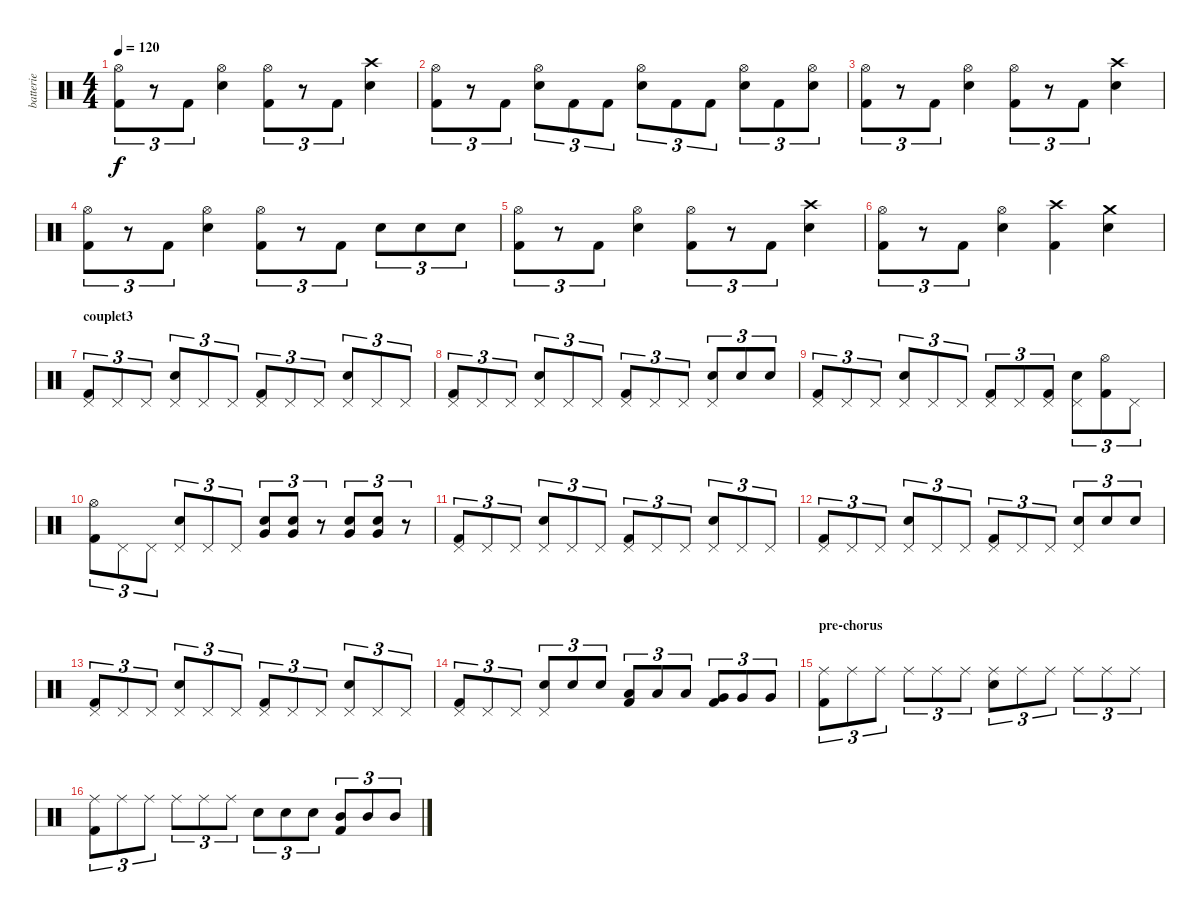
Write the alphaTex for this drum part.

\track ("batterie" "batterie") {instrument percussion}
\staff {score}
\articulation defaults
\ts (4 4)
\tempo 120
\clef neutral
\ks c
("Kick (hit) 2" "Hi-Hat (open)").8{tu (3 2) dy f} r.8{tu (3 2)} "Kick (hit) 2".8{tu (3 2)} ("Snare (hit) 2" "Hi-Hat (open)").4 ("Kick (hit) 2" "Hi-Hat (open)").8{tu (3 2)} r.8{tu (3 2)} "Kick (hit) 2".8{tu (3 2)} ("Crash high (hit)" "Snare (hit) 2").4 |
("Kick (hit) 2" "Hi-Hat (open)").8{tu (3 2)} r.8{tu (3 2)} "Kick (hit) 2".8{tu (3 2)} ("Snare (hit) 2" "Hi-Hat (open)").8{tu (3 2)} "Kick (hit) 2".8{tu (3 2)} "Kick (hit) 2".8{tu (3 2)} ("Snare (hit) 2" "Hi-Hat (open)").8{tu (3 2)} "Kick (hit) 2".8{tu (3 2)} "Kick (hit) 2".8{tu (3 2)} ("Snare (hit) 2" "Hi-Hat (open)").8{tu (3 2)} "Kick (hit) 2".8{tu (3 2)} ("Snare (hit) 2" "Hi-Hat (open)").8{tu (3 2)} |
("Kick (hit) 2" "Hi-Hat (open)").8{tu (3 2)} r.8{tu (3 2)} "Kick (hit) 2".8{tu (3 2)} ("Snare (hit) 2" "Hi-Hat (open)").4 ("Kick (hit) 2" "Hi-Hat (open)").8{tu (3 2)} r.8{tu (3 2)} "Kick (hit) 2".8{tu (3 2)} ("Crash high (hit)" "Snare (hit) 2").4 |
("Kick (hit) 2" "Hi-Hat (open)").8{tu (3 2)} r.8{tu (3 2)} "Kick (hit) 2".8{tu (3 2)} ("Snare (hit) 2" "Hi-Hat (open)").4 ("Kick (hit) 2" "Hi-Hat (open)").8{tu (3 2)} r.8{tu (3 2)} "Kick (hit) 2".8{tu (3 2)} "Snare (hit) 2".8{tu (3 2)} "Snare (hit) 2".8{tu (3 2)} "Snare (hit) 2".8{tu (3 2)} |
("Kick (hit) 2" "Hi-Hat (open)").8{tu (3 2)} r.8{tu (3 2)} "Kick (hit) 2".8{tu (3 2)} ("Snare (hit) 2" "Hi-Hat (open)").4 ("Kick (hit) 2" "Hi-Hat (open)").8{tu (3 2)} r.8{tu (3 2)} "Kick (hit) 2".8{tu (3 2)} ("Crash high (hit)" "Snare (hit) 2").4 |
("Kick (hit) 2" "Hi-Hat (open)").8{tu (3 2)} r.8{tu (3 2)} "Kick (hit) 2".8{tu (3 2)} ("Snare (hit) 2" "Hi-Hat (open)").4 ("Crash high (hit)" "Kick (hit) 2").4 ("Crash medium (hit)" "Snare (hit) 2").4 |
\section ("" "couplet3")
("Kick (hit) 2" "Pedal Hi-Hat (hit)").8{tu (3 2)} "Pedal Hi-Hat (hit)".8{tu (3 2)} "Pedal Hi-Hat (hit)".8{tu (3 2)} ("Snare (hit) 2" "Pedal Hi-Hat (hit)").8{tu (3 2)} "Pedal Hi-Hat (hit)".8{tu (3 2)} "Pedal Hi-Hat (hit)".8{tu (3 2)} ("Kick (hit) 2" "Pedal Hi-Hat (hit)").8{tu (3 2)} "Pedal Hi-Hat (hit)".8{tu (3 2)} "Pedal Hi-Hat (hit)".8{tu (3 2)} ("Snare (hit) 2" "Pedal Hi-Hat (hit)").8{tu (3 2)} "Pedal Hi-Hat (hit)".8{tu (3 2)} "Pedal Hi-Hat (hit)".8{tu (3 2)} |
("Kick (hit) 2" "Pedal Hi-Hat (hit)").8{tu (3 2)} "Pedal Hi-Hat (hit)".8{tu (3 2)} "Pedal Hi-Hat (hit)".8{tu (3 2)} ("Snare (hit) 2" "Pedal Hi-Hat (hit)").8{tu (3 2)} "Pedal Hi-Hat (hit)".8{tu (3 2)} "Pedal Hi-Hat (hit)".8{tu (3 2)} ("Kick (hit) 2" "Pedal Hi-Hat (hit)").8{tu (3 2)} "Pedal Hi-Hat (hit)".8{tu (3 2)} "Pedal Hi-Hat (hit)".8{tu (3 2)} ("Snare (hit) 2" "Pedal Hi-Hat (hit)").8{tu (3 2)} "Snare (hit) 2".8{tu (3 2)} "Snare (hit) 2".8{tu (3 2)} |
("Kick (hit) 2" "Pedal Hi-Hat (hit)").8{tu (3 2)} "Pedal Hi-Hat (hit)".8{tu (3 2)} "Pedal Hi-Hat (hit)".8{tu (3 2)} ("Snare (hit) 2" "Pedal Hi-Hat (hit)").8{tu (3 2)} "Pedal Hi-Hat (hit)".8{tu (3 2)} "Pedal Hi-Hat (hit)".8{tu (3 2)} ("Kick (hit) 2" "Pedal Hi-Hat (hit)").8{tu (3 2)} "Pedal Hi-Hat (hit)".8{tu (3 2)} ("Kick (hit) 2" "Pedal Hi-Hat (hit)").8{tu (3 2)} ("Snare (hit) 2" "Pedal Hi-Hat (hit)").8{tu (3 2)} ("Kick (hit) 2" "Hi-Hat (open)").8{tu (3 2)} "Pedal Hi-Hat (hit)".8{tu (3 2)} |
("Kick (hit) 2" "Hi-Hat (open)").8{tu (3 2)} "Pedal Hi-Hat (hit)".8{tu (3 2)} "Pedal Hi-Hat (hit)".8{tu (3 2)} ("Snare (hit) 2" "Pedal Hi-Hat (hit)").8{tu (3 2)} "Pedal Hi-Hat (hit)".8{tu (3 2)} "Pedal Hi-Hat (hit)".8{tu (3 2)} ("Very Low Tom (hit)" "Snare (hit) 2").8{tu (3 2)} ("Very Low Tom (hit)" "Snare (hit) 2").8{tu (3 2)} r.8{tu (3 2)} ("Very Low Tom (hit)" "Snare (hit) 2").8{tu (3 2)} ("Very Low Tom (hit)" "Snare (hit) 2").8{tu (3 2)} r.8{tu (3 2)} |
("Kick (hit) 2" "Pedal Hi-Hat (hit)").8{tu (3 2)} "Pedal Hi-Hat (hit)".8{tu (3 2)} "Pedal Hi-Hat (hit)".8{tu (3 2)} ("Snare (hit) 2" "Pedal Hi-Hat (hit)").8{tu (3 2)} "Pedal Hi-Hat (hit)".8{tu (3 2)} "Pedal Hi-Hat (hit)".8{tu (3 2)} ("Kick (hit) 2" "Pedal Hi-Hat (hit)").8{tu (3 2)} "Pedal Hi-Hat (hit)".8{tu (3 2)} "Pedal Hi-Hat (hit)".8{tu (3 2)} ("Snare (hit) 2" "Pedal Hi-Hat (hit)").8{tu (3 2)} "Pedal Hi-Hat (hit)".8{tu (3 2)} "Pedal Hi-Hat (hit)".8{tu (3 2)} |
("Kick (hit) 2" "Pedal Hi-Hat (hit)").8{tu (3 2)} "Pedal Hi-Hat (hit)".8{tu (3 2)} "Pedal Hi-Hat (hit)".8{tu (3 2)} ("Snare (hit) 2" "Pedal Hi-Hat (hit)").8{tu (3 2)} "Pedal Hi-Hat (hit)".8{tu (3 2)} "Pedal Hi-Hat (hit)".8{tu (3 2)} ("Kick (hit) 2" "Pedal Hi-Hat (hit)").8{tu (3 2)} "Pedal Hi-Hat (hit)".8{tu (3 2)} "Pedal Hi-Hat (hit)".8{tu (3 2)} ("Snare (hit) 2" "Pedal Hi-Hat (hit)").8{tu (3 2)} "Snare (hit) 2".8{tu (3 2)} "Snare (hit) 2".8{tu (3 2)} |
("Kick (hit) 2" "Pedal Hi-Hat (hit)").8{tu (3 2)} "Pedal Hi-Hat (hit)".8{tu (3 2)} "Pedal Hi-Hat (hit)".8{tu (3 2)} ("Snare (hit) 2" "Pedal Hi-Hat (hit)").8{tu (3 2)} "Pedal Hi-Hat (hit)".8{tu (3 2)} "Pedal Hi-Hat (hit)".8{tu (3 2)} ("Kick (hit) 2" "Pedal Hi-Hat (hit)").8{tu (3 2)} "Pedal Hi-Hat (hit)".8{tu (3 2)} "Pedal Hi-Hat (hit)".8{tu (3 2)} ("Snare (hit) 2" "Pedal Hi-Hat (hit)").8{tu (3 2)} "Pedal Hi-Hat (hit)".8{tu (3 2)} "Pedal Hi-Hat (hit)".8{tu (3 2)} |
("Kick (hit) 2" "Pedal Hi-Hat (hit)").8{tu (3 2)} "Pedal Hi-Hat (hit)".8{tu (3 2)} "Pedal Hi-Hat (hit)".8{tu (3 2)} ("Snare (hit) 2" "Pedal Hi-Hat (hit)").8{tu (3 2)} "Snare (hit) 2".8{tu (3 2)} "Snare (hit) 2".8{tu (3 2)} ("Low Tom (hit)" "Kick (hit) 2").8{tu (3 2)} "Low Tom (hit)".8{tu (3 2)} "Low Tom (hit)".8{tu (3 2)} ("Very Low Tom (hit)" "Kick (hit) 2").8{tu (3 2)} "Very Low Tom (hit)".8{tu (3 2)} "Very Low Tom (hit)".8{tu (3 2)} |
\section ("" "pre-chorus")
("Kick (hit) 2" "Ride (middle)").8{tu (3 2)} "Ride (middle)".8{tu (3 2)} "Ride (middle)".8{tu (3 2)} "Ride (middle)".8{tu (3 2)} "Ride (middle)".8{tu (3 2)} "Ride (middle)".8{tu (3 2)} ("Snare (hit) 2" "Ride (middle)").8{tu (3 2)} "Ride (middle)".8{tu (3 2)} "Ride (middle)".8{tu (3 2)} "Ride (middle)".8{tu (3 2)} "Ride (middle)".8{tu (3 2)} "Ride (middle)".8{tu (3 2)} |
("Kick (hit) 2" "Ride (middle)").8{tu (3 2)} "Ride (middle)".8{tu (3 2)} "Ride (middle)".8{tu (3 2)} "Ride (middle)".8{tu (3 2)} "Ride (middle)".8{tu (3 2)} "Ride (middle)".8{tu (3 2)} "Snare (hit) 2".8{tu (3 2)} "Snare (hit) 2".8{tu (3 2)} "Snare (hit) 2".8{tu (3 2)} ("Mid Tom (hit)" "Kick (hit) 2").8{tu (3 2)} "Mid Tom (hit)".8{tu (3 2)} "Mid Tom (hit)".8{tu (3 2)}
